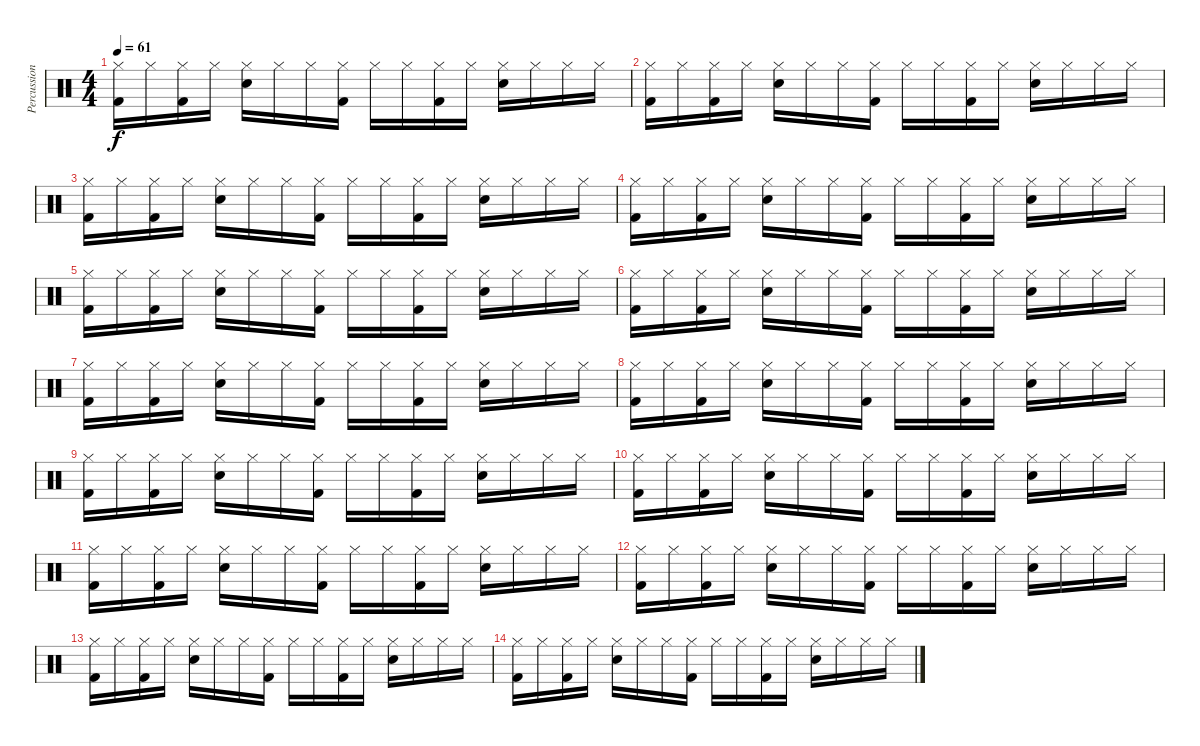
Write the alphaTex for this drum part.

\track ("Percussion" "Percussion") {instrument percussion}
\staff {score}
\articulation defaults
\ts (4 4)
\tempo 61
\clef neutral
\ks c
("Kick (hit) 2" "Hi-Hat (closed)").16{dy f} "Hi-Hat (closed)".16 ("Kick (hit) 2" "Hi-Hat (closed)").16 "Hi-Hat (closed)".16 ("Electric Snare (hit)" "Hi-Hat (closed)").16 "Hi-Hat (closed)".16 "Hi-Hat (closed)".16 ("Kick (hit) 2" "Hi-Hat (closed)").16 "Hi-Hat (closed)".16 "Hi-Hat (closed)".16 ("Kick (hit) 2" "Hi-Hat (closed)").16 "Hi-Hat (closed)".16 ("Electric Snare (hit)" "Hi-Hat (closed)").16 "Hi-Hat (closed)".16 "Hi-Hat (closed)".16 "Hi-Hat (closed)".16 |
("Kick (hit) 2" "Hi-Hat (closed)").16 "Hi-Hat (closed)".16 ("Kick (hit) 2" "Hi-Hat (closed)").16 "Hi-Hat (closed)".16 ("Electric Snare (hit)" "Hi-Hat (closed)").16 "Hi-Hat (closed)".16 "Hi-Hat (closed)".16 ("Kick (hit) 2" "Hi-Hat (closed)").16 "Hi-Hat (closed)".16 "Hi-Hat (closed)".16 ("Kick (hit) 2" "Hi-Hat (closed)").16 "Hi-Hat (closed)".16 ("Electric Snare (hit)" "Hi-Hat (closed)").16 "Hi-Hat (closed)".16 "Hi-Hat (closed)".16 "Hi-Hat (closed)".16 |
("Kick (hit) 2" "Hi-Hat (closed)").16 "Hi-Hat (closed)".16 ("Kick (hit) 2" "Hi-Hat (closed)").16 "Hi-Hat (closed)".16 ("Electric Snare (hit)" "Hi-Hat (closed)").16 "Hi-Hat (closed)".16 "Hi-Hat (closed)".16 ("Kick (hit) 2" "Hi-Hat (closed)").16 "Hi-Hat (closed)".16 "Hi-Hat (closed)".16 ("Kick (hit) 2" "Hi-Hat (closed)").16 "Hi-Hat (closed)".16 ("Electric Snare (hit)" "Hi-Hat (closed)").16 "Hi-Hat (closed)".16 "Hi-Hat (closed)".16 "Hi-Hat (closed)".16 |
("Kick (hit) 2" "Hi-Hat (closed)").16 "Hi-Hat (closed)".16 ("Kick (hit) 2" "Hi-Hat (closed)").16 "Hi-Hat (closed)".16 ("Electric Snare (hit)" "Hi-Hat (closed)").16 "Hi-Hat (closed)".16 "Hi-Hat (closed)".16 ("Kick (hit) 2" "Hi-Hat (closed)").16 "Hi-Hat (closed)".16 "Hi-Hat (closed)".16 ("Kick (hit) 2" "Hi-Hat (closed)").16 "Hi-Hat (closed)".16 ("Electric Snare (hit)" "Hi-Hat (closed)").16 "Hi-Hat (closed)".16 "Hi-Hat (closed)".16 "Hi-Hat (closed)".16 |
("Kick (hit) 2" "Hi-Hat (closed)").16 "Hi-Hat (closed)".16 ("Kick (hit) 2" "Hi-Hat (closed)").16 "Hi-Hat (closed)".16 ("Electric Snare (hit)" "Hi-Hat (closed)").16 "Hi-Hat (closed)".16 "Hi-Hat (closed)".16 ("Kick (hit) 2" "Hi-Hat (closed)").16 "Hi-Hat (closed)".16 "Hi-Hat (closed)".16 ("Kick (hit) 2" "Hi-Hat (closed)").16 "Hi-Hat (closed)".16 ("Electric Snare (hit)" "Hi-Hat (closed)").16 "Hi-Hat (closed)".16 "Hi-Hat (closed)".16 "Hi-Hat (closed)".16 |
("Kick (hit) 2" "Hi-Hat (closed)").16 "Hi-Hat (closed)".16 ("Kick (hit) 2" "Hi-Hat (closed)").16 "Hi-Hat (closed)".16 ("Electric Snare (hit)" "Hi-Hat (closed)").16 "Hi-Hat (closed)".16 "Hi-Hat (closed)".16 ("Kick (hit) 2" "Hi-Hat (closed)").16 "Hi-Hat (closed)".16 "Hi-Hat (closed)".16 ("Kick (hit) 2" "Hi-Hat (closed)").16 "Hi-Hat (closed)".16 ("Electric Snare (hit)" "Hi-Hat (closed)").16 "Hi-Hat (closed)".16 "Hi-Hat (closed)".16 "Hi-Hat (closed)".16 |
("Kick (hit) 2" "Hi-Hat (closed)").16 "Hi-Hat (closed)".16 ("Kick (hit) 2" "Hi-Hat (closed)").16 "Hi-Hat (closed)".16 ("Electric Snare (hit)" "Hi-Hat (closed)").16 "Hi-Hat (closed)".16 "Hi-Hat (closed)".16 ("Kick (hit) 2" "Hi-Hat (closed)").16 "Hi-Hat (closed)".16 "Hi-Hat (closed)".16 ("Kick (hit) 2" "Hi-Hat (closed)").16 "Hi-Hat (closed)".16 ("Electric Snare (hit)" "Hi-Hat (closed)").16 "Hi-Hat (closed)".16 "Hi-Hat (closed)".16 "Hi-Hat (closed)".16 |
("Kick (hit) 2" "Hi-Hat (closed)").16 "Hi-Hat (closed)".16 ("Kick (hit) 2" "Hi-Hat (closed)").16 "Hi-Hat (closed)".16 ("Electric Snare (hit)" "Hi-Hat (closed)").16 "Hi-Hat (closed)".16 "Hi-Hat (closed)".16 ("Kick (hit) 2" "Hi-Hat (closed)").16 "Hi-Hat (closed)".16 "Hi-Hat (closed)".16 ("Kick (hit) 2" "Hi-Hat (closed)").16 "Hi-Hat (closed)".16 ("Electric Snare (hit)" "Hi-Hat (closed)").16 "Hi-Hat (closed)".16 "Hi-Hat (closed)".16 "Hi-Hat (closed)".16 |
("Kick (hit) 2" "Hi-Hat (closed)").16 "Hi-Hat (closed)".16 ("Kick (hit) 2" "Hi-Hat (closed)").16 "Hi-Hat (closed)".16 ("Electric Snare (hit)" "Hi-Hat (closed)").16 "Hi-Hat (closed)".16 "Hi-Hat (closed)".16 ("Kick (hit) 2" "Hi-Hat (closed)").16 "Hi-Hat (closed)".16 "Hi-Hat (closed)".16 ("Kick (hit) 2" "Hi-Hat (closed)").16 "Hi-Hat (closed)".16 ("Electric Snare (hit)" "Hi-Hat (closed)").16 "Hi-Hat (closed)".16 "Hi-Hat (closed)".16 "Hi-Hat (closed)".16 |
("Kick (hit) 2" "Hi-Hat (closed)").16 "Hi-Hat (closed)".16 ("Kick (hit) 2" "Hi-Hat (closed)").16 "Hi-Hat (closed)".16 ("Electric Snare (hit)" "Hi-Hat (closed)").16 "Hi-Hat (closed)".16 "Hi-Hat (closed)".16 ("Kick (hit) 2" "Hi-Hat (closed)").16 "Hi-Hat (closed)".16 "Hi-Hat (closed)".16 ("Kick (hit) 2" "Hi-Hat (closed)").16 "Hi-Hat (closed)".16 ("Electric Snare (hit)" "Hi-Hat (closed)").16 "Hi-Hat (closed)".16 "Hi-Hat (closed)".16 "Hi-Hat (closed)".16 |
("Kick (hit) 2" "Hi-Hat (closed)").16 "Hi-Hat (closed)".16 ("Kick (hit) 2" "Hi-Hat (closed)").16 "Hi-Hat (closed)".16 ("Electric Snare (hit)" "Hi-Hat (closed)").16 "Hi-Hat (closed)".16 "Hi-Hat (closed)".16 ("Kick (hit) 2" "Hi-Hat (closed)").16 "Hi-Hat (closed)".16 "Hi-Hat (closed)".16 ("Kick (hit) 2" "Hi-Hat (closed)").16 "Hi-Hat (closed)".16 ("Electric Snare (hit)" "Hi-Hat (closed)").16 "Hi-Hat (closed)".16 "Hi-Hat (closed)".16 "Hi-Hat (closed)".16 |
("Kick (hit) 2" "Hi-Hat (closed)").16 "Hi-Hat (closed)".16 ("Kick (hit) 2" "Hi-Hat (closed)").16 "Hi-Hat (closed)".16 ("Electric Snare (hit)" "Hi-Hat (closed)").16 "Hi-Hat (closed)".16 "Hi-Hat (closed)".16 ("Kick (hit) 2" "Hi-Hat (closed)").16 "Hi-Hat (closed)".16 "Hi-Hat (closed)".16 ("Kick (hit) 2" "Hi-Hat (closed)").16 "Hi-Hat (closed)".16 ("Electric Snare (hit)" "Hi-Hat (closed)").16 "Hi-Hat (closed)".16 "Hi-Hat (closed)".16 "Hi-Hat (closed)".16 |
("Kick (hit) 2" "Hi-Hat (closed)").16 "Hi-Hat (closed)".16 ("Kick (hit) 2" "Hi-Hat (closed)").16 "Hi-Hat (closed)".16 ("Electric Snare (hit)" "Hi-Hat (closed)").16 "Hi-Hat (closed)".16 "Hi-Hat (closed)".16 ("Kick (hit) 2" "Hi-Hat (closed)").16 "Hi-Hat (closed)".16 "Hi-Hat (closed)".16 ("Kick (hit) 2" "Hi-Hat (closed)").16 "Hi-Hat (closed)".16 ("Electric Snare (hit)" "Hi-Hat (closed)").16 "Hi-Hat (closed)".16 "Hi-Hat (closed)".16 "Hi-Hat (closed)".16 |
("Kick (hit) 2" "Hi-Hat (closed)").16 "Hi-Hat (closed)".16 ("Kick (hit) 2" "Hi-Hat (closed)").16 "Hi-Hat (closed)".16 ("Electric Snare (hit)" "Hi-Hat (closed)").16 "Hi-Hat (closed)".16 "Hi-Hat (closed)".16 ("Kick (hit) 2" "Hi-Hat (closed)").16 "Hi-Hat (closed)".16 "Hi-Hat (closed)".16 ("Kick (hit) 2" "Hi-Hat (closed)").16 "Hi-Hat (closed)".16 ("Electric Snare (hit)" "Hi-Hat (closed)").16 "Hi-Hat (closed)".16 "Hi-Hat (closed)".16 "Hi-Hat (closed)".16
